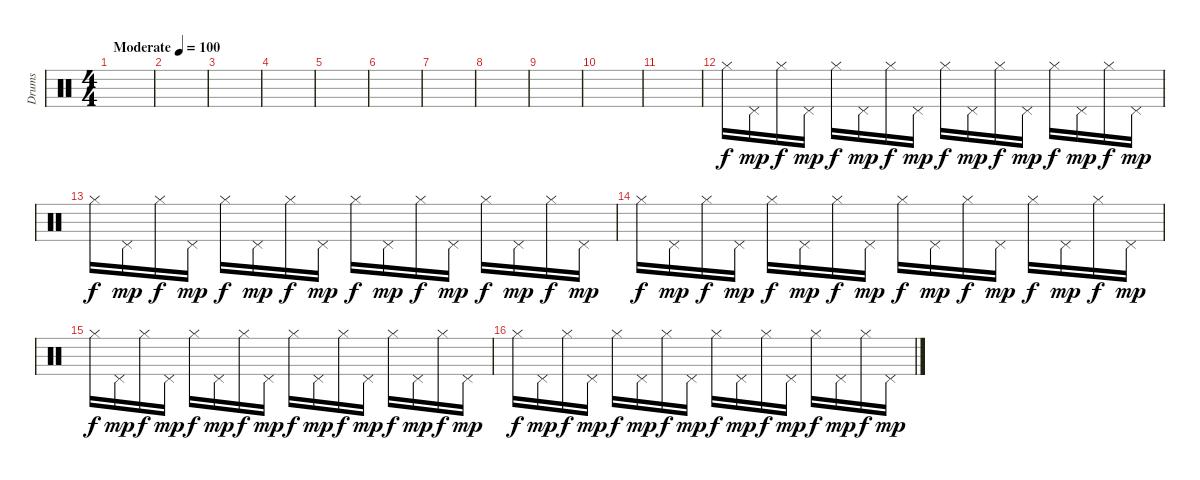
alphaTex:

\track ("Drums" "Drums") {instrument percussion}
\staff {score}
\articulation defaults
\ts (4 4)
\tempo (100 "Moderate")
\clef neutral
\ks c
|
|
|
|
|
|
|
|
|
|
|
"Hi-Hat (closed)".16 "Pedal Hi-Hat (hit)".16{dy mp} "Hi-Hat (closed)".16{dy f} "Pedal Hi-Hat (hit)".16{dy mp} "Hi-Hat (closed)".16{dy f} "Pedal Hi-Hat (hit)".16{dy mp} "Hi-Hat (closed)".16{dy f} "Pedal Hi-Hat (hit)".16{dy mp} "Hi-Hat (closed)".16{dy f} "Pedal Hi-Hat (hit)".16{dy mp} "Hi-Hat (closed)".16{dy f} "Pedal Hi-Hat (hit)".16{dy mp} "Hi-Hat (closed)".16{dy f} "Pedal Hi-Hat (hit)".16{dy mp} "Hi-Hat (closed)".16{dy f} "Pedal Hi-Hat (hit)".16{dy mp} |
"Hi-Hat (closed)".16{dy f} "Pedal Hi-Hat (hit)".16{dy mp} "Hi-Hat (closed)".16{dy f} "Pedal Hi-Hat (hit)".16{dy mp} "Hi-Hat (closed)".16{dy f} "Pedal Hi-Hat (hit)".16{dy mp} "Hi-Hat (closed)".16{dy f} "Pedal Hi-Hat (hit)".16{dy mp} "Hi-Hat (closed)".16{dy f} "Pedal Hi-Hat (hit)".16{dy mp} "Hi-Hat (closed)".16{dy f} "Pedal Hi-Hat (hit)".16{dy mp} "Hi-Hat (closed)".16{dy f} "Pedal Hi-Hat (hit)".16{dy mp} "Hi-Hat (closed)".16{dy f} "Pedal Hi-Hat (hit)".16{dy mp} |
"Hi-Hat (closed)".16{dy f} "Pedal Hi-Hat (hit)".16{dy mp} "Hi-Hat (closed)".16{dy f} "Pedal Hi-Hat (hit)".16{dy mp} "Hi-Hat (closed)".16{dy f} "Pedal Hi-Hat (hit)".16{dy mp} "Hi-Hat (closed)".16{dy f} "Pedal Hi-Hat (hit)".16{dy mp} "Hi-Hat (closed)".16{dy f} "Pedal Hi-Hat (hit)".16{dy mp} "Hi-Hat (closed)".16{dy f} "Pedal Hi-Hat (hit)".16{dy mp} "Hi-Hat (closed)".16{dy f} "Pedal Hi-Hat (hit)".16{dy mp} "Hi-Hat (closed)".16{dy f} "Pedal Hi-Hat (hit)".16{dy mp} |
"Hi-Hat (closed)".16{dy f} "Pedal Hi-Hat (hit)".16{dy mp} "Hi-Hat (closed)".16{dy f} "Pedal Hi-Hat (hit)".16{dy mp} "Hi-Hat (closed)".16{dy f} "Pedal Hi-Hat (hit)".16{dy mp} "Hi-Hat (closed)".16{dy f} "Pedal Hi-Hat (hit)".16{dy mp} "Hi-Hat (closed)".16{dy f} "Pedal Hi-Hat (hit)".16{dy mp} "Hi-Hat (closed)".16{dy f} "Pedal Hi-Hat (hit)".16{dy mp} "Hi-Hat (closed)".16{dy f} "Pedal Hi-Hat (hit)".16{dy mp} "Hi-Hat (closed)".16{dy f} "Pedal Hi-Hat (hit)".16{dy mp} |
"Hi-Hat (closed)".16{dy f} "Pedal Hi-Hat (hit)".16{dy mp} "Hi-Hat (closed)".16{dy f} "Pedal Hi-Hat (hit)".16{dy mp} "Hi-Hat (closed)".16{dy f} "Pedal Hi-Hat (hit)".16{dy mp} "Hi-Hat (closed)".16{dy f} "Pedal Hi-Hat (hit)".16{dy mp} "Hi-Hat (closed)".16{dy f} "Pedal Hi-Hat (hit)".16{dy mp} "Hi-Hat (closed)".16{dy f} "Pedal Hi-Hat (hit)".16{dy mp} "Hi-Hat (closed)".16{dy f} "Pedal Hi-Hat (hit)".16{dy mp} "Hi-Hat (closed)".16{dy f} "Pedal Hi-Hat (hit)".16{dy mp}
